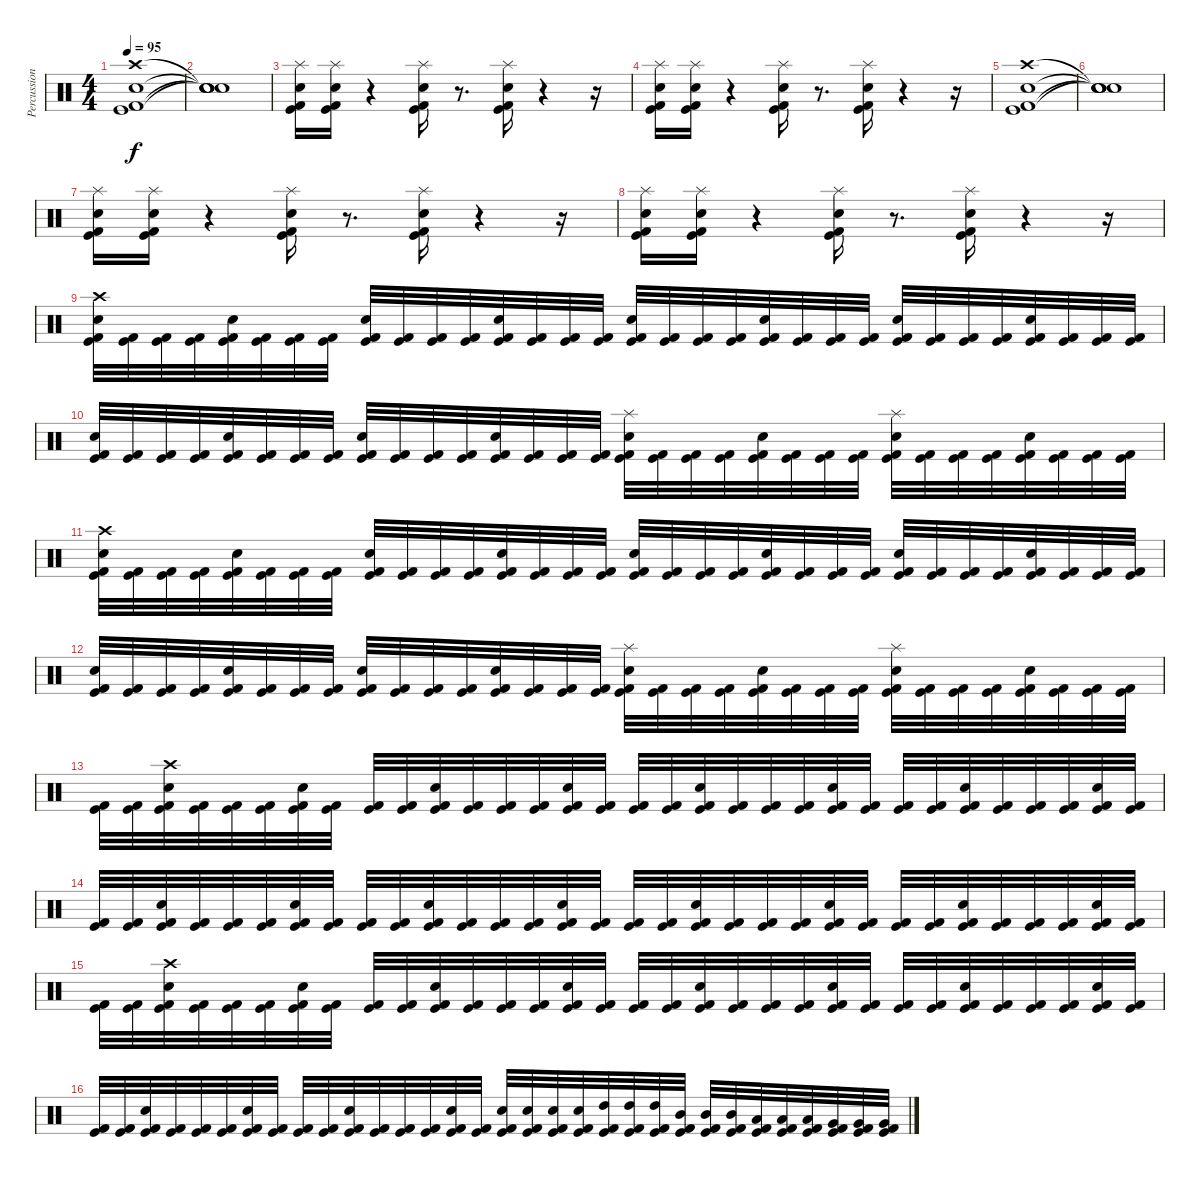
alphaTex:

\track ("Percussion" "Percussion") {instrument percussion}
\staff {score}
\articulation defaults
\ts (4 4)
\tempo 95
\clef neutral
\ks c
("Kick (hit)" "Kick (hit) 2" "Snare (hit) 2" "Crash high (hit)").1{dy f} |
("Snare (hit)"{t} "Snare (hit)"{t} "Snare (hit)"{t} "Snare (hit)"{t}).1 |
("Kick (hit) 2" "Kick (hit)" "Splash (hit)" "Snare (hit) 2").16 ("Kick (hit) 2" "Kick (hit)" "Splash (hit)" "Snare (hit) 2").16 r.4 ("Kick (hit) 2" "Kick (hit)" "Splash (hit)" "Snare (hit) 2").16 r.8{d} ("Kick (hit) 2" "Kick (hit)" "Splash (hit)" "Snare (hit) 2").16 r.4 r.16 |
("Kick (hit)" "Kick (hit) 2" "Splash (hit)" "Snare (hit) 2").16 ("Kick (hit)" "Kick (hit) 2" "Splash (hit)" "Snare (hit) 2").16 r.4 ("Kick (hit)" "Kick (hit) 2" "Splash (hit)" "Snare (hit) 2").16 r.8{d} ("Kick (hit)" "Kick (hit) 2" "Splash (hit)" "Snare (hit) 2").16 r.4 r.16 |
("Kick (hit)" "Kick (hit) 2" "Snare (hit) 2" "Crash high (hit)").1 |
("Snare (hit)"{t} "Snare (hit)"{t} "Snare (hit)"{t} "Snare (hit)"{t}).1 |
("Kick (hit) 2" "Kick (hit)" "Splash (hit)" "Snare (hit) 2").16 ("Kick (hit) 2" "Kick (hit)" "Splash (hit)" "Snare (hit) 2").16 r.4 ("Kick (hit) 2" "Kick (hit)" "Splash (hit)" "Snare (hit) 2").16 r.8{d} ("Kick (hit) 2" "Kick (hit)" "Splash (hit)" "Snare (hit) 2").16 r.4 r.16 |
("Kick (hit)" "Kick (hit) 2" "Splash (hit)" "Snare (hit) 2").16 ("Kick (hit)" "Kick (hit) 2" "Splash (hit)" "Snare (hit) 2").16 r.4 ("Kick (hit)" "Kick (hit) 2" "Splash (hit)" "Snare (hit) 2").16 r.8{d} ("Kick (hit)" "Kick (hit) 2" "Splash (hit)" "Snare (hit) 2").16 r.4 r.16 |
("Crash high (hit)" "Snare (hit) 2" "Kick (hit) 2" "Kick (hit)").32 ("Kick (hit) 2" "Kick (hit)").32 ("Kick (hit) 2" "Kick (hit)").32 ("Kick (hit) 2" "Kick (hit)").32 ("Snare (hit) 2" "Kick (hit) 2" "Kick (hit)").32 ("Kick (hit) 2" "Kick (hit)").32 ("Kick (hit) 2" "Kick (hit)").32 ("Kick (hit) 2" "Kick (hit)").32 ("Snare (hit) 2" "Kick (hit) 2" "Kick (hit)").32 ("Kick (hit) 2" "Kick (hit)").32 ("Kick (hit) 2" "Kick (hit)").32 ("Kick (hit) 2" "Kick (hit)").32 ("Snare (hit) 2" "Kick (hit) 2" "Kick (hit)").32 ("Kick (hit) 2" "Kick (hit)").32 ("Kick (hit) 2" "Kick (hit)").32 ("Kick (hit) 2" "Kick (hit)").32 ("Snare (hit) 2" "Kick (hit) 2" "Kick (hit)").32 ("Kick (hit) 2" "Kick (hit)").32 ("Kick (hit) 2" "Kick (hit)").32 ("Kick (hit) 2" "Kick (hit)").32 ("Snare (hit) 2" "Kick (hit) 2" "Kick (hit)").32 ("Kick (hit) 2" "Kick (hit)").32 ("Kick (hit) 2" "Kick (hit)").32 ("Kick (hit) 2" "Kick (hit)").32 ("Snare (hit) 2" "Kick (hit) 2" "Kick (hit)").32 ("Kick (hit) 2" "Kick (hit)").32 ("Kick (hit) 2" "Kick (hit)").32 ("Kick (hit) 2" "Kick (hit)").32 ("Snare (hit) 2" "Kick (hit) 2" "Kick (hit)").32 ("Kick (hit) 2" "Kick (hit)").32 ("Kick (hit) 2" "Kick (hit)").32 ("Kick (hit) 2" "Kick (hit)").32 |
("Snare (hit) 2" "Kick (hit) 2" "Kick (hit)").32 ("Kick (hit) 2" "Kick (hit)").32 ("Kick (hit) 2" "Kick (hit)").32 ("Kick (hit) 2" "Kick (hit)").32 ("Snare (hit) 2" "Kick (hit) 2" "Kick (hit)").32 ("Kick (hit) 2" "Kick (hit)").32 ("Kick (hit) 2" "Kick (hit)").32 ("Kick (hit) 2" "Kick (hit)").32 ("Snare (hit) 2" "Kick (hit) 2" "Kick (hit)").32 ("Kick (hit) 2" "Kick (hit)").32 ("Kick (hit) 2" "Kick (hit)").32 ("Kick (hit) 2" "Kick (hit)").32 ("Snare (hit) 2" "Kick (hit) 2" "Kick (hit)").32 ("Kick (hit) 2" "Kick (hit)").32 ("Kick (hit) 2" "Kick (hit)").32 ("Kick (hit) 2" "Kick (hit)").32 ("Splash (hit)" "Snare (hit) 2" "Kick (hit) 2" "Kick (hit)").32 ("Kick (hit) 2" "Kick (hit)").32 ("Kick (hit) 2" "Kick (hit)").32 ("Kick (hit) 2" "Kick (hit)").32 ("Snare (hit) 2" "Kick (hit) 2" "Kick (hit)").32 ("Kick (hit) 2" "Kick (hit)").32 ("Kick (hit) 2" "Kick (hit)").32 ("Kick (hit) 2" "Kick (hit)").32 ("Splash (hit)" "Snare (hit) 2" "Kick (hit) 2" "Kick (hit)").32 ("Kick (hit) 2" "Kick (hit)").32 ("Kick (hit) 2" "Kick (hit)").32 ("Kick (hit) 2" "Kick (hit)").32 ("Snare (hit) 2" "Kick (hit) 2" "Kick (hit)").32 ("Kick (hit) 2" "Kick (hit)").32 ("Kick (hit) 2" "Kick (hit)").32 ("Kick (hit) 2" "Kick (hit)").32 |
("Crash high (hit)" "Snare (hit) 2" "Kick (hit) 2" "Kick (hit)").32 ("Kick (hit) 2" "Kick (hit)").32 ("Kick (hit) 2" "Kick (hit)").32 ("Kick (hit) 2" "Kick (hit)").32 ("Snare (hit) 2" "Kick (hit) 2" "Kick (hit)").32 ("Kick (hit) 2" "Kick (hit)").32 ("Kick (hit) 2" "Kick (hit)").32 ("Kick (hit) 2" "Kick (hit)").32 ("Snare (hit) 2" "Kick (hit) 2" "Kick (hit)").32 ("Kick (hit) 2" "Kick (hit)").32 ("Kick (hit) 2" "Kick (hit)").32 ("Kick (hit) 2" "Kick (hit)").32 ("Snare (hit) 2" "Kick (hit) 2" "Kick (hit)").32 ("Kick (hit) 2" "Kick (hit)").32 ("Kick (hit) 2" "Kick (hit)").32 ("Kick (hit) 2" "Kick (hit)").32 ("Snare (hit) 2" "Kick (hit) 2" "Kick (hit)").32 ("Kick (hit) 2" "Kick (hit)").32 ("Kick (hit) 2" "Kick (hit)").32 ("Kick (hit) 2" "Kick (hit)").32 ("Snare (hit) 2" "Kick (hit) 2" "Kick (hit)").32 ("Kick (hit) 2" "Kick (hit)").32 ("Kick (hit) 2" "Kick (hit)").32 ("Kick (hit) 2" "Kick (hit)").32 ("Snare (hit) 2" "Kick (hit) 2" "Kick (hit)").32 ("Kick (hit) 2" "Kick (hit)").32 ("Kick (hit) 2" "Kick (hit)").32 ("Kick (hit) 2" "Kick (hit)").32 ("Snare (hit) 2" "Kick (hit) 2" "Kick (hit)").32 ("Kick (hit) 2" "Kick (hit)").32 ("Kick (hit) 2" "Kick (hit)").32 ("Kick (hit) 2" "Kick (hit)").32 |
("Snare (hit) 2" "Kick (hit) 2" "Kick (hit)").32 ("Kick (hit) 2" "Kick (hit)").32 ("Kick (hit) 2" "Kick (hit)").32 ("Kick (hit) 2" "Kick (hit)").32 ("Snare (hit) 2" "Kick (hit) 2" "Kick (hit)").32 ("Kick (hit) 2" "Kick (hit)").32 ("Kick (hit) 2" "Kick (hit)").32 ("Kick (hit) 2" "Kick (hit)").32 ("Snare (hit) 2" "Kick (hit) 2" "Kick (hit)").32 ("Kick (hit) 2" "Kick (hit)").32 ("Kick (hit) 2" "Kick (hit)").32 ("Kick (hit) 2" "Kick (hit)").32 ("Snare (hit) 2" "Kick (hit) 2" "Kick (hit)").32 ("Kick (hit) 2" "Kick (hit)").32 ("Kick (hit) 2" "Kick (hit)").32 ("Kick (hit) 2" "Kick (hit)").32 ("Splash (hit)" "Snare (hit) 2" "Kick (hit) 2" "Kick (hit)").32 ("Kick (hit) 2" "Kick (hit)").32 ("Kick (hit) 2" "Kick (hit)").32 ("Kick (hit) 2" "Kick (hit)").32 ("Snare (hit) 2" "Kick (hit) 2" "Kick (hit)").32 ("Kick (hit) 2" "Kick (hit)").32 ("Kick (hit) 2" "Kick (hit)").32 ("Kick (hit) 2" "Kick (hit)").32 ("Splash (hit)" "Snare (hit) 2" "Kick (hit) 2" "Kick (hit)").32 ("Kick (hit) 2" "Kick (hit)").32 ("Kick (hit) 2" "Kick (hit)").32 ("Kick (hit) 2" "Kick (hit)").32 ("Snare (hit) 2" "Kick (hit) 2" "Kick (hit)").32 ("Kick (hit) 2" "Kick (hit)").32 ("Kick (hit) 2" "Kick (hit)").32 ("Kick (hit) 2" "Kick (hit)").32 |
("Kick (hit) 2" "Kick (hit)").32 ("Kick (hit) 2" "Kick (hit)").32 ("Crash high (hit)" "Snare (hit) 2" "Kick (hit) 2" "Kick (hit)").32 ("Kick (hit) 2" "Kick (hit)").32 ("Kick (hit) 2" "Kick (hit)").32 ("Kick (hit) 2" "Kick (hit)").32 ("Snare (hit) 2" "Kick (hit) 2" "Kick (hit)").32 ("Kick (hit) 2" "Kick (hit)").32 ("Kick (hit) 2" "Kick (hit)").32 ("Kick (hit) 2" "Kick (hit)").32 ("Snare (hit) 2" "Kick (hit) 2" "Kick (hit)").32 ("Kick (hit) 2" "Kick (hit)").32 ("Kick (hit) 2" "Kick (hit)").32 ("Kick (hit) 2" "Kick (hit)").32 ("Snare (hit) 2" "Kick (hit) 2" "Kick (hit)").32 ("Kick (hit) 2" "Kick (hit)").32 ("Kick (hit) 2" "Kick (hit)").32 ("Kick (hit) 2" "Kick (hit)").32 ("Snare (hit) 2" "Kick (hit) 2" "Kick (hit)").32 ("Kick (hit) 2" "Kick (hit)").32 ("Kick (hit) 2" "Kick (hit)").32 ("Kick (hit) 2" "Kick (hit)").32 ("Snare (hit) 2" "Kick (hit) 2" "Kick (hit)").32 ("Kick (hit) 2" "Kick (hit)").32 ("Kick (hit) 2" "Kick (hit)").32 ("Kick (hit) 2" "Kick (hit)").32 ("Snare (hit) 2" "Kick (hit) 2" "Kick (hit)").32 ("Kick (hit) 2" "Kick (hit)").32 ("Kick (hit) 2" "Kick (hit)").32 ("Kick (hit) 2" "Kick (hit)").32 ("Snare (hit) 2" "Kick (hit) 2" "Kick (hit)").32 ("Kick (hit) 2" "Kick (hit)").32 |
("Kick (hit) 2" "Kick (hit)").32 ("Kick (hit) 2" "Kick (hit)").32 ("Snare (hit) 2" "Kick (hit) 2" "Kick (hit)").32 ("Kick (hit) 2" "Kick (hit)").32 ("Kick (hit) 2" "Kick (hit)").32 ("Kick (hit) 2" "Kick (hit)").32 ("Snare (hit) 2" "Kick (hit) 2" "Kick (hit)").32 ("Kick (hit) 2" "Kick (hit)").32 ("Kick (hit) 2" "Kick (hit)").32 ("Kick (hit) 2" "Kick (hit)").32 ("Snare (hit) 2" "Kick (hit) 2" "Kick (hit)").32 ("Kick (hit) 2" "Kick (hit)").32 ("Kick (hit) 2" "Kick (hit)").32 ("Kick (hit) 2" "Kick (hit)").32 ("Snare (hit) 2" "Kick (hit) 2" "Kick (hit)").32 ("Kick (hit) 2" "Kick (hit)").32 ("Kick (hit) 2" "Kick (hit)").32 ("Kick (hit) 2" "Kick (hit)").32 ("Snare (hit) 2" "Kick (hit) 2" "Kick (hit)").32 ("Kick (hit) 2" "Kick (hit)").32 ("Kick (hit) 2" "Kick (hit)").32 ("Kick (hit) 2" "Kick (hit)").32 ("Snare (hit) 2" "Kick (hit) 2" "Kick (hit)").32 ("Kick (hit) 2" "Kick (hit)").32 ("Kick (hit) 2" "Kick (hit)").32 ("Kick (hit) 2" "Kick (hit)").32 ("Snare (hit) 2" "Kick (hit) 2" "Kick (hit)").32 ("Kick (hit) 2" "Kick (hit)").32 ("Kick (hit) 2" "Kick (hit)").32 ("Kick (hit) 2" "Kick (hit)").32 ("Snare (hit) 2" "Kick (hit) 2" "Kick (hit)").32 ("Kick (hit) 2" "Kick (hit)").32 |
("Kick (hit) 2" "Kick (hit)").32 ("Kick (hit) 2" "Kick (hit)").32 ("Crash high (hit)" "Snare (hit) 2" "Kick (hit) 2" "Kick (hit)").32 ("Kick (hit) 2" "Kick (hit)").32 ("Kick (hit) 2" "Kick (hit)").32 ("Kick (hit) 2" "Kick (hit)").32 ("Snare (hit) 2" "Kick (hit) 2" "Kick (hit)").32 ("Kick (hit) 2" "Kick (hit)").32 ("Kick (hit) 2" "Kick (hit)").32 ("Kick (hit) 2" "Kick (hit)").32 ("Snare (hit) 2" "Kick (hit) 2" "Kick (hit)").32 ("Kick (hit) 2" "Kick (hit)").32 ("Kick (hit) 2" "Kick (hit)").32 ("Kick (hit) 2" "Kick (hit)").32 ("Snare (hit) 2" "Kick (hit) 2" "Kick (hit)").32 ("Kick (hit) 2" "Kick (hit)").32 ("Kick (hit) 2" "Kick (hit)").32 ("Kick (hit) 2" "Kick (hit)").32 ("Snare (hit) 2" "Kick (hit) 2" "Kick (hit)").32 ("Kick (hit) 2" "Kick (hit)").32 ("Kick (hit) 2" "Kick (hit)").32 ("Kick (hit) 2" "Kick (hit)").32 ("Snare (hit) 2" "Kick (hit) 2" "Kick (hit)").32 ("Kick (hit) 2" "Kick (hit)").32 ("Kick (hit) 2" "Kick (hit)").32 ("Kick (hit) 2" "Kick (hit)").32 ("Snare (hit) 2" "Kick (hit) 2" "Kick (hit)").32 ("Kick (hit) 2" "Kick (hit)").32 ("Kick (hit) 2" "Kick (hit)").32 ("Kick (hit) 2" "Kick (hit)").32 ("Snare (hit) 2" "Kick (hit) 2" "Kick (hit)").32 ("Kick (hit) 2" "Kick (hit)").32 |
("Kick (hit) 2" "Kick (hit)").32 ("Kick (hit) 2" "Kick (hit)").32 ("Snare (hit) 2" "Kick (hit) 2" "Kick (hit)").32 ("Kick (hit) 2" "Kick (hit)").32 ("Kick (hit) 2" "Kick (hit)").32 ("Kick (hit) 2" "Kick (hit)").32 ("Snare (hit) 2" "Kick (hit) 2" "Kick (hit)").32 ("Kick (hit) 2" "Kick (hit)").32 ("Kick (hit) 2" "Kick (hit)").32 ("Kick (hit) 2" "Kick (hit)").32 ("Snare (hit) 2" "Kick (hit) 2" "Kick (hit)").32 ("Kick (hit) 2" "Kick (hit)").32 ("Kick (hit) 2" "Kick (hit)").32 ("Kick (hit) 2" "Kick (hit)").32 ("Snare (hit) 2" "Kick (hit) 2" "Kick (hit)").32 ("Kick (hit) 2" "Kick (hit)").32 ("Snare (hit) 2" "Kick (hit) 2" "Kick (hit)").32 ("Snare (hit) 2" "Kick (hit) 2" "Kick (hit)").32 ("Snare (hit) 2" "Kick (hit) 2" "Kick (hit)").32 ("Snare (hit) 2" "Kick (hit) 2" "Kick (hit)").32 ("High Tom (hit)" "Kick (hit) 2" "Kick (hit)").32 ("High Tom (hit)" "Kick (hit) 2" "Kick (hit)").32 ("High Tom (hit)" "Kick (hit) 2" "Kick (hit)").32 ("Mid Tom (hit)" "Kick (hit) 2" "Kick (hit)").32 ("Mid Tom (hit)" "Kick (hit) 2" "Kick (hit)").32 ("Mid Tom (hit)" "Kick (hit) 2" "Kick (hit)").32 ("Low Tom (hit)" "Kick (hit) 2" "Kick (hit)").32 ("Low Tom (hit)" "Kick (hit) 2" "Kick (hit)").32 ("Low Tom (hit)" "Kick (hit) 2" "Kick (hit)").32 ("Very Low Tom (hit)" "Kick (hit) 2" "Kick (hit)").32 ("Very Low Tom (hit)" "Kick (hit) 2" "Kick (hit)").32 ("Very Low Tom (hit)" "Kick (hit) 2" "Kick (hit)").32
